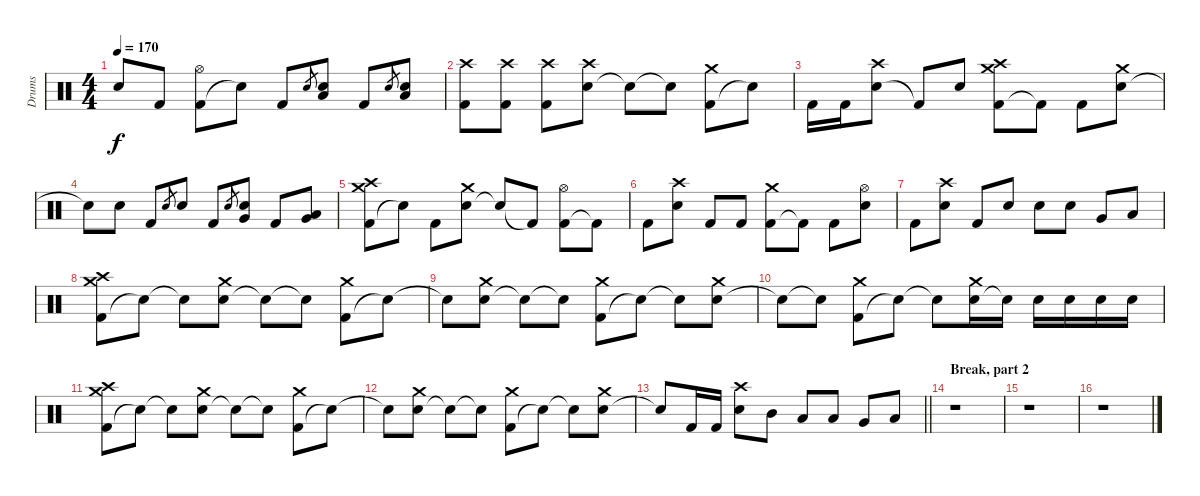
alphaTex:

\track ("Drums" "Drums") {instrument percussion}
\staff {score}
\articulation defaults
\ts (4 4)
\tempo 170
\clef neutral
\ks c "Snare (hit)"{t}.8{dy f} "Kick (hit) 2".8
("Kick (hit) 2" "Hi-Hat (open)").8 "Electric Snare (hit)"{t}.8 "Kick (hit) 2".8 "Electric Snare (hit)".8{gr} ("Electric Snare (hit)" "Low Floor Tom (hit)").8 "Kick (hit) 2".8 "Electric Snare (hit)".8{gr} ("Electric Snare (hit)" "Low Floor Tom (hit)").8 |
("Kick (hit) 2" "Crash high (hit)").8 ("Kick (hit) 2" "Crash high (hit)").8 ("Kick (hit) 2" "Crash high (hit)").8 ("Electric Snare (hit)" "Crash high (hit)").8 "Snare (hit)"{t}.8 "Snare (hit)"{t}.8 ("Kick (hit) 2" "Crash medium (hit)").8 "Snare (hit)"{t}.8 |
"Kick (hit) 2".16 "Kick (hit) 2".16 ("Electric Snare (hit)" "Crash high (hit)").8 "Kick (hit) 2"{t}.8 "Electric Snare (hit)".8 ("Kick (hit) 2" "Crash medium (hit)" "Crash high (hit)").8 "Kick (hit) 2"{t}.8 "Kick (hit) 2".8 ("Electric Snare (hit)" "Crash medium (hit)").8 |
"Electric Snare (hit)"{t}.8 "Electric Snare (hit)".8 "Kick (hit) 2".8 "Electric Snare (hit)".8{gr} "Electric Snare (hit)".8 "Kick (hit) 2".8 "Electric Snare (hit)".8{gr} ("Electric Snare (hit)" "Very Low Tom (hit)").8 "Kick (hit) 2".8 ("Very Low Tom (hit)" "Low Floor Tom (hit)").8 |
("Kick (hit) 2" "Crash medium (hit)" "Crash high (hit)").8 "Snare (hit)"{t}.8 "Kick (hit) 2".8 ("Electric Snare (hit)" "Crash medium (hit)").8 "Snare (hit)"{t}.8 "Kick (hit) 2"{t}.8 ("Kick (hit) 2" "Hi-Hat (open)").8 "Kick (hit) 2"{t}.8 |
"Kick (hit) 2".8 ("Electric Snare (hit)" "Crash high (hit)").8 "Kick (hit) 2".8 "Kick (hit) 2".8 ("Kick (hit) 2" "Crash medium (hit)").8 "Kick (hit) 2"{t}.8 "Kick (hit) 2".8 ("Electric Snare (hit)" "Hi-Hat (open)").8 |
"Kick (hit) 2".8 ("Electric Snare (hit)" "Crash high (hit)").8 "Kick (hit) 2".8 "Electric Snare (hit)".8 "Electric Snare (hit)".8 "Electric Snare (hit)".8 "Very Low Tom (hit)".8 "Low Floor Tom (hit)".8 |
("Kick (hit) 2" "Crash medium (hit)" "Crash high (hit)").8 "Snare (hit)"{t}.8 "Snare (hit)"{t}.8 ("Electric Snare (hit)" "Crash medium (hit)").8 "Electric Snare (hit)"{t}.8 "Snare (hit)"{t}.8 ("Kick (hit) 2" "Crash medium (hit)").8 "Snare (hit)"{t}.8 |
"Snare (hit)"{t}.8 ("Electric Snare (hit)" "Crash medium (hit)").8 "Snare (hit)"{t}.8 "Snare (hit)"{t}.8 ("Kick (hit) 2" "Crash medium (hit)").8 "Snare (hit)"{t}.8 "Snare (hit)"{t}.8 ("Electric Snare (hit)" "Crash medium (hit)").8 |
"Snare (hit)"{t}.8 "Snare (hit)"{t}.8 ("Kick (hit) 2" "Crash medium (hit)").8 "Snare (hit)"{t}.8 "Snare (hit)"{t}.8 ("Electric Snare (hit)" "Crash medium (hit)").16 "Snare (hit)"{t}.16 "Electric Snare (hit)".16 "Electric Snare (hit)".16 "Electric Snare (hit)".16 "Electric Snare (hit)".16 |
("Kick (hit) 2" "Crash medium (hit)" "Crash high (hit)").8 "Snare (hit)"{t}.8 "Snare (hit)"{t}.8 ("Electric Snare (hit)" "Crash medium (hit)").8 "Electric Snare (hit)"{t}.8 "Snare (hit)"{t}.8 ("Kick (hit) 2" "Crash medium (hit)").8 "Snare (hit)"{t}.8 |
"Snare (hit)"{t}.8 ("Electric Snare (hit)" "Crash medium (hit)").8 "Snare (hit)"{t}.8 "Snare (hit)"{t}.8 ("Kick (hit) 2" "Crash medium (hit)").8 "Snare (hit)"{t}.8 "Snare (hit)"{t}.8 ("Electric Snare (hit)" "Crash medium (hit)").8 |
\barLineRight lightlight "Snare (hit)"{t}.8 "Kick (hit) 2".16 "Kick (hit) 2".16
("Electric Snare (hit)" "Crash high (hit)").8 "Mid Tom (hit)".8 "Low Tom (hit)".8 "Low Tom (hit)".8 "Very Low Tom (hit)".8 "Low Floor Tom (hit)".8 |
\section ("" "Break, part 2")
r.1 |
r.1 |
r.1
